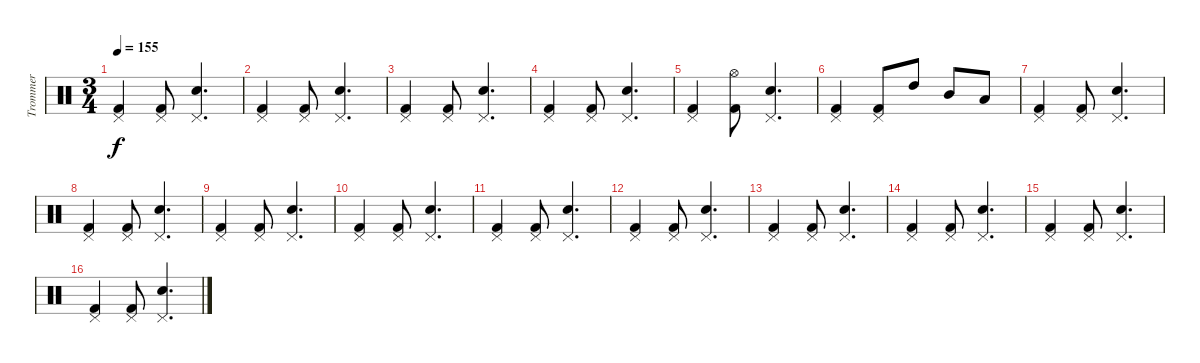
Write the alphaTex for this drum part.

\track ("Trommer" "Trommer") {instrument percussion}
\staff {score}
\articulation defaults
\ts (3 4)
\tempo 155
\clef neutral
\ks c
("Kick (hit) 2" "Pedal Hi-Hat (hit)").4{dy f} ("Kick (hit) 2" "Pedal Hi-Hat (hit)").8 ("Snare (hit) 2" "Pedal Hi-Hat (hit)").4{d} |
("Kick (hit) 2" "Pedal Hi-Hat (hit)").4 ("Kick (hit) 2" "Pedal Hi-Hat (hit)").8 ("Snare (hit) 2" "Pedal Hi-Hat (hit)").4{d} |
("Kick (hit) 2" "Pedal Hi-Hat (hit)").4 ("Kick (hit) 2" "Pedal Hi-Hat (hit)").8 ("Snare (hit) 2" "Pedal Hi-Hat (hit)").4{d} |
("Kick (hit) 2" "Pedal Hi-Hat (hit)").4 ("Kick (hit) 2" "Pedal Hi-Hat (hit)").8 ("Snare (hit) 2" "Pedal Hi-Hat (hit)").4{d} |
("Kick (hit) 2" "Pedal Hi-Hat (hit)").4 ("Kick (hit) 2" "Hi-Hat (open)").8 ("Snare (hit) 2" "Pedal Hi-Hat (hit)").4{d} |
("Kick (hit) 2" "Pedal Hi-Hat (hit)").4 ("Kick (hit) 2" "Pedal Hi-Hat (hit)").8 "High Tom (hit)".8 "Mid Tom (hit)".8 "Low Tom (hit)".8 |
("Kick (hit) 2" "Pedal Hi-Hat (hit)").4 ("Kick (hit) 2" "Pedal Hi-Hat (hit)").8 ("Snare (hit) 2" "Pedal Hi-Hat (hit)").4{d} |
("Kick (hit) 2" "Pedal Hi-Hat (hit)").4 ("Kick (hit) 2" "Pedal Hi-Hat (hit)").8 ("Snare (hit) 2" "Pedal Hi-Hat (hit)").4{d} |
("Kick (hit) 2" "Pedal Hi-Hat (hit)").4 ("Kick (hit) 2" "Pedal Hi-Hat (hit)").8 ("Snare (hit) 2" "Pedal Hi-Hat (hit)").4{d} |
("Kick (hit) 2" "Pedal Hi-Hat (hit)").4 ("Kick (hit) 2" "Pedal Hi-Hat (hit)").8 ("Snare (hit) 2" "Pedal Hi-Hat (hit)").4{d} |
("Kick (hit) 2" "Pedal Hi-Hat (hit)").4 ("Kick (hit) 2" "Pedal Hi-Hat (hit)").8 ("Snare (hit) 2" "Pedal Hi-Hat (hit)").4{d} |
("Kick (hit) 2" "Pedal Hi-Hat (hit)").4 ("Kick (hit) 2" "Pedal Hi-Hat (hit)").8 ("Snare (hit) 2" "Pedal Hi-Hat (hit)").4{d} |
("Kick (hit) 2" "Pedal Hi-Hat (hit)").4 ("Kick (hit) 2" "Pedal Hi-Hat (hit)").8 ("Snare (hit) 2" "Pedal Hi-Hat (hit)").4{d} |
("Kick (hit) 2" "Pedal Hi-Hat (hit)").4 ("Kick (hit) 2" "Pedal Hi-Hat (hit)").8 ("Snare (hit) 2" "Pedal Hi-Hat (hit)").4{d} |
("Kick (hit) 2" "Pedal Hi-Hat (hit)").4 ("Kick (hit) 2" "Pedal Hi-Hat (hit)").8 ("Snare (hit) 2" "Pedal Hi-Hat (hit)").4{d} |
("Kick (hit) 2" "Pedal Hi-Hat (hit)").4 ("Kick (hit) 2" "Pedal Hi-Hat (hit)").8 ("Snare (hit) 2" "Pedal Hi-Hat (hit)").4{d}
